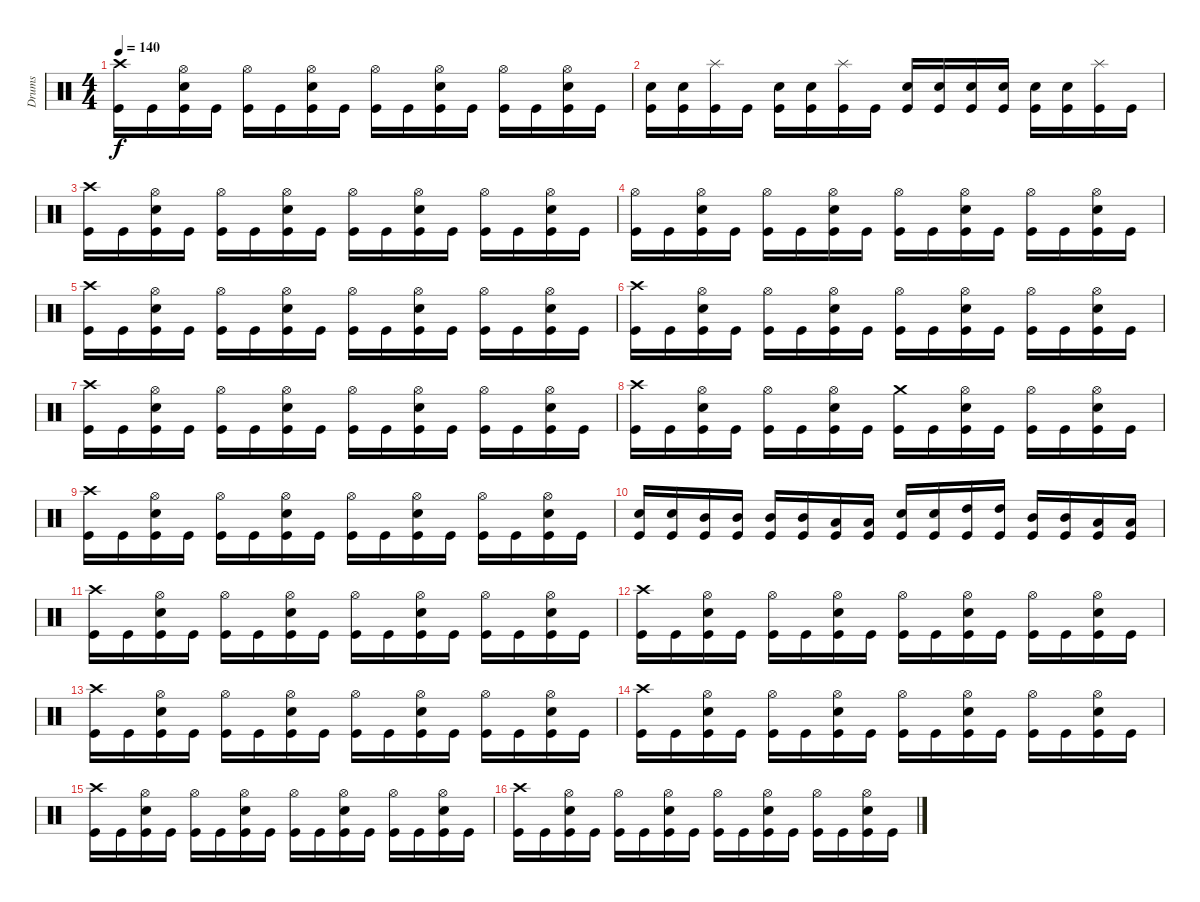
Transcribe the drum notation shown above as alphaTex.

\track ("Drums" "Drums") {instrument percussion}
\staff {score}
\articulation defaults
\ts (4 4)
\tempo 140
\clef neutral
\ks c
("Crash high (hit)" "Kick (hit)").16{dy f} "Kick (hit)".16 ("Hi-Hat (open)" "Electric Snare (hit)" "Kick (hit)").16 "Kick (hit)".16 ("Hi-Hat (open)" "Kick (hit)").16 "Kick (hit)".16 ("Hi-Hat (open)" "Electric Snare (hit)" "Kick (hit)").16 "Kick (hit)".16 ("Hi-Hat (open)" "Kick (hit)").16 "Kick (hit)".16 ("Hi-Hat (open)" "Electric Snare (hit)" "Kick (hit)").16 "Kick (hit)".16 ("Hi-Hat (open)" "Kick (hit)").16 "Kick (hit)".16 ("Hi-Hat (open)" "Electric Snare (hit)" "Kick (hit)").16 "Kick (hit)".16 |
("Electric Snare (hit)" "Kick (hit)").16 ("Electric Snare (hit)" "Kick (hit)").16 ("Splash (hit)" "Kick (hit)").16 "Kick (hit)".16 ("Electric Snare (hit)" "Kick (hit)").16 ("Electric Snare (hit)" "Kick (hit)").16 ("Splash (hit)" "Kick (hit)").16 "Kick (hit)".16 ("Electric Snare (hit)" "Kick (hit)").16 ("Electric Snare (hit)" "Kick (hit)").16 ("Electric Snare (hit)" "Kick (hit)").16 ("Electric Snare (hit)" "Kick (hit)").16 ("Electric Snare (hit)" "Kick (hit)").16 ("Electric Snare (hit)" "Kick (hit)").16 ("Splash (hit)" "Kick (hit)").16 "Kick (hit)".16 |
("Crash high (hit)" "Kick (hit)").16 "Kick (hit)".16 ("Hi-Hat (open)" "Electric Snare (hit)" "Kick (hit)").16 "Kick (hit)".16 ("Hi-Hat (open)" "Kick (hit)").16 "Kick (hit)".16 ("Hi-Hat (open)" "Electric Snare (hit)" "Kick (hit)").16 "Kick (hit)".16 ("Hi-Hat (open)" "Kick (hit)").16 "Kick (hit)".16 ("Hi-Hat (open)" "Electric Snare (hit)" "Kick (hit)").16 "Kick (hit)".16 ("Hi-Hat (open)" "Kick (hit)").16 "Kick (hit)".16 ("Hi-Hat (open)" "Electric Snare (hit)" "Kick (hit)").16 "Kick (hit)".16 |
("Hi-Hat (open)" "Kick (hit)").16 "Kick (hit)".16 ("Hi-Hat (open)" "Electric Snare (hit)" "Kick (hit)").16 "Kick (hit)".16 ("Hi-Hat (open)" "Kick (hit)").16 "Kick (hit)".16 ("Hi-Hat (open)" "Electric Snare (hit)" "Kick (hit)").16 "Kick (hit)".16 ("Hi-Hat (open)" "Kick (hit)").16 "Kick (hit)".16 ("Hi-Hat (open)" "Electric Snare (hit)" "Kick (hit)").16 "Kick (hit)".16 ("Hi-Hat (open)" "Kick (hit)").16 "Kick (hit)".16 ("Hi-Hat (open)" "Electric Snare (hit)" "Kick (hit)").16 "Kick (hit)".16 |
("Crash high (hit)" "Kick (hit)").16 "Kick (hit)".16 ("Hi-Hat (open)" "Electric Snare (hit)" "Kick (hit)").16 "Kick (hit)".16 ("Hi-Hat (open)" "Kick (hit)").16 "Kick (hit)".16 ("Hi-Hat (open)" "Electric Snare (hit)" "Kick (hit)").16 "Kick (hit)".16 ("Hi-Hat (open)" "Kick (hit)").16 "Kick (hit)".16 ("Hi-Hat (open)" "Electric Snare (hit)" "Kick (hit)").16 "Kick (hit)".16 ("Hi-Hat (open)" "Kick (hit)").16 "Kick (hit)".16 ("Hi-Hat (open)" "Electric Snare (hit)" "Kick (hit)").16 "Kick (hit)".16 |
("Crash high (hit)" "Kick (hit)").16 "Kick (hit)".16 ("Hi-Hat (open)" "Electric Snare (hit)" "Kick (hit)").16 "Kick (hit)".16 ("Hi-Hat (open)" "Kick (hit)").16 "Kick (hit)".16 ("Hi-Hat (open)" "Electric Snare (hit)" "Kick (hit)").16 "Kick (hit)".16 ("Hi-Hat (open)" "Kick (hit)").16 "Kick (hit)".16 ("Hi-Hat (open)" "Electric Snare (hit)" "Kick (hit)").16 "Kick (hit)".16 ("Hi-Hat (open)" "Kick (hit)").16 "Kick (hit)".16 ("Hi-Hat (open)" "Electric Snare (hit)" "Kick (hit)").16 "Kick (hit)".16 |
("Crash high (hit)" "Kick (hit)").16 "Kick (hit)".16 ("Hi-Hat (open)" "Electric Snare (hit)" "Kick (hit)").16 "Kick (hit)".16 ("Hi-Hat (open)" "Kick (hit)").16 "Kick (hit)".16 ("Hi-Hat (open)" "Electric Snare (hit)" "Kick (hit)").16 "Kick (hit)".16 ("Hi-Hat (open)" "Kick (hit)").16 "Kick (hit)".16 ("Hi-Hat (open)" "Electric Snare (hit)" "Kick (hit)").16 "Kick (hit)".16 ("Hi-Hat (open)" "Kick (hit)").16 "Kick (hit)".16 ("Hi-Hat (open)" "Electric Snare (hit)" "Kick (hit)").16 "Kick (hit)".16 |
("Crash high (hit)" "Kick (hit)").16 "Kick (hit)".16 ("Hi-Hat (open)" "Electric Snare (hit)" "Kick (hit)").16 "Kick (hit)".16 ("Hi-Hat (open)" "Kick (hit)").16 "Kick (hit)".16 ("Hi-Hat (open)" "Electric Snare (hit)" "Kick (hit)").16 "Kick (hit)".16 ("Crash medium (hit)" "Kick (hit)").16 "Kick (hit)".16 ("Hi-Hat (open)" "Electric Snare (hit)" "Kick (hit)").16 "Kick (hit)".16 ("Hi-Hat (open)" "Kick (hit)").16 "Kick (hit)".16 ("Hi-Hat (open)" "Electric Snare (hit)" "Kick (hit)").16 "Kick (hit)".16 |
("Crash high (hit)" "Kick (hit)").16 "Kick (hit)".16 ("Hi-Hat (open)" "Electric Snare (hit)" "Kick (hit)").16 "Kick (hit)".16 ("Hi-Hat (open)" "Kick (hit)").16 "Kick (hit)".16 ("Hi-Hat (open)" "Electric Snare (hit)" "Kick (hit)").16 "Kick (hit)".16 ("Hi-Hat (open)" "Kick (hit)").16 "Kick (hit)".16 ("Hi-Hat (open)" "Electric Snare (hit)" "Kick (hit)").16 "Kick (hit)".16 ("Hi-Hat (open)" "Kick (hit)").16 "Kick (hit)".16 ("Hi-Hat (open)" "Electric Snare (hit)" "Kick (hit)").16 "Kick (hit)".16 |
("Electric Snare (hit)" "Kick (hit)").16 ("Electric Snare (hit)" "Kick (hit)").16 ("Mid Tom (hit)" "Kick (hit)").16 ("Mid Tom (hit)" "Kick (hit)").16 ("Mid Tom (hit)" "Kick (hit)").16 ("Mid Tom (hit)" "Kick (hit)").16 ("Low Tom (hit)" "Kick (hit)").16 ("Low Tom (hit)" "Kick (hit)").16 ("Electric Snare (hit)" "Kick (hit)").16 ("Electric Snare (hit)" "Kick (hit)").16 ("High Tom (hit)" "Kick (hit)").16 ("High Tom (hit)" "Kick (hit)").16 ("Mid Tom (hit)" "Kick (hit)").16 ("Mid Tom (hit)" "Kick (hit)").16 ("Low Tom (hit)" "Kick (hit)").16 ("Low Tom (hit)" "Kick (hit)").16 |
("Crash high (hit)" "Kick (hit)").16 "Kick (hit)".16 ("Hi-Hat (open)" "Electric Snare (hit)" "Kick (hit)").16 "Kick (hit)".16 ("Hi-Hat (open)" "Kick (hit)").16 "Kick (hit)".16 ("Hi-Hat (open)" "Electric Snare (hit)" "Kick (hit)").16 "Kick (hit)".16 ("Hi-Hat (open)" "Kick (hit)").16 "Kick (hit)".16 ("Hi-Hat (open)" "Electric Snare (hit)" "Kick (hit)").16 "Kick (hit)".16 ("Hi-Hat (open)" "Kick (hit)").16 "Kick (hit)".16 ("Hi-Hat (open)" "Electric Snare (hit)" "Kick (hit)").16 "Kick (hit)".16 |
("Crash high (hit)" "Kick (hit)").16 "Kick (hit)".16 ("Hi-Hat (open)" "Electric Snare (hit)" "Kick (hit)").16 "Kick (hit)".16 ("Hi-Hat (open)" "Kick (hit)").16 "Kick (hit)".16 ("Hi-Hat (open)" "Electric Snare (hit)" "Kick (hit)").16 "Kick (hit)".16 ("Hi-Hat (open)" "Kick (hit)").16 "Kick (hit)".16 ("Hi-Hat (open)" "Electric Snare (hit)" "Kick (hit)").16 "Kick (hit)".16 ("Hi-Hat (open)" "Kick (hit)").16 "Kick (hit)".16 ("Hi-Hat (open)" "Electric Snare (hit)" "Kick (hit)").16 "Kick (hit)".16 |
("Crash high (hit)" "Kick (hit)").16 "Kick (hit)".16 ("Hi-Hat (open)" "Electric Snare (hit)" "Kick (hit)").16 "Kick (hit)".16 ("Hi-Hat (open)" "Kick (hit)").16 "Kick (hit)".16 ("Hi-Hat (open)" "Electric Snare (hit)" "Kick (hit)").16 "Kick (hit)".16 ("Hi-Hat (open)" "Kick (hit)").16 "Kick (hit)".16 ("Hi-Hat (open)" "Electric Snare (hit)" "Kick (hit)").16 "Kick (hit)".16 ("Hi-Hat (open)" "Kick (hit)").16 "Kick (hit)".16 ("Hi-Hat (open)" "Electric Snare (hit)" "Kick (hit)").16 "Kick (hit)".16 |
("Crash high (hit)" "Kick (hit)").16 "Kick (hit)".16 ("Hi-Hat (open)" "Electric Snare (hit)" "Kick (hit)").16 "Kick (hit)".16 ("Hi-Hat (open)" "Kick (hit)").16 "Kick (hit)".16 ("Hi-Hat (open)" "Electric Snare (hit)" "Kick (hit)").16 "Kick (hit)".16 ("Hi-Hat (open)" "Kick (hit)").16 "Kick (hit)".16 ("Hi-Hat (open)" "Electric Snare (hit)" "Kick (hit)").16 "Kick (hit)".16 ("Hi-Hat (open)" "Kick (hit)").16 "Kick (hit)".16 ("Hi-Hat (open)" "Electric Snare (hit)" "Kick (hit)").16 "Kick (hit)".16 |
("Crash high (hit)" "Kick (hit)").16 "Kick (hit)".16 ("Hi-Hat (open)" "Electric Snare (hit)" "Kick (hit)").16 "Kick (hit)".16 ("Hi-Hat (open)" "Kick (hit)").16 "Kick (hit)".16 ("Hi-Hat (open)" "Electric Snare (hit)" "Kick (hit)").16 "Kick (hit)".16 ("Hi-Hat (open)" "Kick (hit)").16 "Kick (hit)".16 ("Hi-Hat (open)" "Electric Snare (hit)" "Kick (hit)").16 "Kick (hit)".16 ("Hi-Hat (open)" "Kick (hit)").16 "Kick (hit)".16 ("Hi-Hat (open)" "Electric Snare (hit)" "Kick (hit)").16 "Kick (hit)".16 |
("Crash high (hit)" "Kick (hit)").16 "Kick (hit)".16 ("Hi-Hat (open)" "Electric Snare (hit)" "Kick (hit)").16 "Kick (hit)".16 ("Hi-Hat (open)" "Kick (hit)").16 "Kick (hit)".16 ("Hi-Hat (open)" "Electric Snare (hit)" "Kick (hit)").16 "Kick (hit)".16 ("Hi-Hat (open)" "Kick (hit)").16 "Kick (hit)".16 ("Hi-Hat (open)" "Electric Snare (hit)" "Kick (hit)").16 "Kick (hit)".16 ("Hi-Hat (open)" "Kick (hit)").16 "Kick (hit)".16 ("Hi-Hat (open)" "Electric Snare (hit)" "Kick (hit)").16 "Kick (hit)".16
